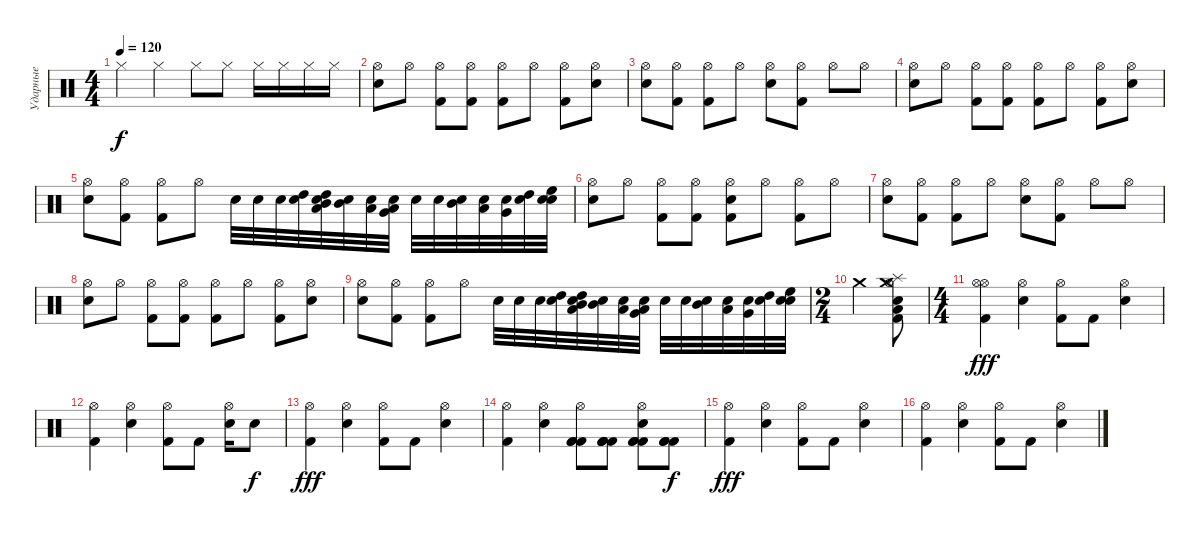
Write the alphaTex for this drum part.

\track ("Ударные" "Ударные") {instrument percussion}
\staff {score}
\articulation defaults
\ts (4 4)
\tempo 120
\clef neutral
\ks c "Hi-Hat (closed)".4{dy f} "Hi-Hat (closed)".4 "Hi-Hat (closed)".8 "Hi-Hat (closed)".8 "Hi-Hat (closed)".16 "Hi-Hat (closed)".16 "Hi-Hat (closed)".16 "Hi-Hat (closed)".16
|
("Hi-Hat (open)" "Snare (hit) 2").8 "Hi-Hat (open)".8 ("Hi-Hat (open)" "Kick (hit) 2").8 ("Hi-Hat (open)" "Kick (hit) 2").8 ("Hi-Hat (open)" "Kick (hit) 2").8 "Hi-Hat (open)".8 ("Hi-Hat (open)" "Kick (hit) 2").8 ("Hi-Hat (open)" "Snare (hit) 2").8 |
("Hi-Hat (open)" "Snare (hit) 2").8 ("Hi-Hat (open)" "Kick (hit) 2").8 ("Hi-Hat (open)" "Kick (hit) 2").8 "Hi-Hat (open)".8 ("Hi-Hat (open)" "Snare (hit) 2").8 ("Hi-Hat (open)" "Kick (hit) 2").8 "Hi-Hat (open)".8 "Hi-Hat (open)".8 |
("Hi-Hat (open)" "Snare (hit) 2").8 "Hi-Hat (open)".8 ("Hi-Hat (open)" "Kick (hit) 2").8 ("Hi-Hat (open)" "Kick (hit) 2").8 ("Hi-Hat (open)" "Kick (hit) 2").8 "Hi-Hat (open)".8 ("Hi-Hat (open)" "Kick (hit) 2").8 ("Hi-Hat (open)" "Snare (hit) 2").8 |
("Hi-Hat (open)" "Snare (hit) 2").8 ("Hi-Hat (open)" "Kick (hit) 2").8 ("Hi-Hat (open)" "Kick (hit) 2").8 "Hi-Hat (open)".8 "Snare (hit) 2".32 "Snare (hit) 2".32 "Snare (hit) 2".32 ("Snare (hit) 2" "High Tom (hit)").32 ("Snare (hit) 2" "High Tom (hit)" "Mid Tom (hit)" "Low Tom (hit)").32 ("Snare (hit) 2" "Mid Tom (hit)").32 ("Snare (hit) 2" "Low Tom (hit)").32 ("Snare (hit) 2" "Very Low Tom (hit)" "Low Floor Tom (hit)").32 "Snare (hit) 2".32 "Snare (hit) 2".32 ("Snare (hit) 2" "Mid Tom (hit)").32 ("Snare (hit) 2" "Low Tom (hit)").32 ("Snare (hit) 2" "Very Low Tom (hit)").32 ("Snare (hit) 2" "High Tom (hit)").32 ("Snare (hit) 2" "Snare (hit) 2" "High Floor Tom (hit)").32 |
("Hi-Hat (open)" "Snare (hit) 2").8 "Hi-Hat (open)".8 ("Hi-Hat (open)" "Kick (hit) 2").8 ("Hi-Hat (open)" "Kick (hit) 2").8 ("Hi-Hat (open)" "Kick (hit) 2" "Snare (hit) 2").8 "Hi-Hat (open)".8 ("Hi-Hat (open)" "Kick (hit) 2").8 "Hi-Hat (open)".8 |
("Hi-Hat (open)" "Snare (hit) 2").8 ("Hi-Hat (open)" "Kick (hit) 2").8 ("Hi-Hat (open)" "Kick (hit) 2").8 "Hi-Hat (open)".8 ("Hi-Hat (open)" "Snare (hit) 2").8 ("Hi-Hat (open)" "Kick (hit) 2").8 "Hi-Hat (open)".8 "Hi-Hat (open)".8 |
("Hi-Hat (open)" "Snare (hit) 2").8 "Hi-Hat (open)".8 ("Hi-Hat (open)" "Kick (hit) 2").8 ("Hi-Hat (open)" "Kick (hit) 2").8 ("Hi-Hat (open)" "Kick (hit) 2").8 "Hi-Hat (open)".8 ("Hi-Hat (open)" "Kick (hit) 2").8 ("Hi-Hat (open)" "Snare (hit) 2").8 |
("Hi-Hat (open)" "Snare (hit) 2").8 ("Hi-Hat (open)" "Kick (hit) 2").8 ("Hi-Hat (open)" "Kick (hit) 2").8 "Hi-Hat (open)".8 "Snare (hit) 2".32 "Snare (hit) 2".32 "Snare (hit) 2".32 ("Snare (hit) 2" "High Tom (hit)").32 ("Snare (hit) 2" "High Tom (hit)" "Mid Tom (hit)" "Low Tom (hit)").32 ("Snare (hit) 2" "Mid Tom (hit)").32 ("Snare (hit) 2" "Low Tom (hit)").32 ("Snare (hit) 2" "Very Low Tom (hit)" "Low Floor Tom (hit)").32 "Snare (hit) 2".32 "Snare (hit) 2".32 ("Snare (hit) 2" "Mid Tom (hit)").32 ("Snare (hit) 2" "Low Tom (hit)").32 ("Snare (hit) 2" "Very Low Tom (hit)").32 ("Snare (hit) 2" "High Tom (hit)").32 ("Snare (hit) 2" "Snare (hit) 2" "High Floor Tom (hit)").32 |
\ts (2 4)
"Crash medium (hit)".4 ("Crash medium (hit)" "Kick (hit) 2" "Snare (hit) 2" "Hi-Hat (open)" "Splash (hit)" "Low Tom (hit)").8 |
\ts (4 4)
("Hi-Hat (open)" "Hi-Hat (open)" "Kick (hit) 2").4{dy fff} ("Hi-Hat (open)" "Snare (hit) 2").4 ("Hi-Hat (open)" "Kick (hit) 2").8 "Kick (hit) 2".8 ("Hi-Hat (open)" "Snare (hit) 2").4 |
("Hi-Hat (open)" "Kick (hit) 2").4 ("Hi-Hat (open)" "Snare (hit) 2").4 ("Hi-Hat (open)" "Kick (hit) 2").8 "Kick (hit) 2".8 ("Hi-Hat (open)" "Snare (hit) 2").16 "Snare (hit) 2".8{dy f} |
("Hi-Hat (open)" "Kick (hit) 2").4{dy fff} ("Hi-Hat (open)" "Snare (hit) 2").4 ("Hi-Hat (open)" "Kick (hit) 2").8 "Kick (hit) 2".8 ("Hi-Hat (open)" "Snare (hit) 2").4 |
("Hi-Hat (open)" "Kick (hit) 2").4 ("Hi-Hat (open)" "Snare (hit) 2").4 ("Kick (hit) 2" "Kick (hit) 2" "Hi-Hat (open)" "Kick (hit) 2").8 ("Kick (hit) 2" "Kick (hit) 2" "Kick (hit) 2" "Kick (hit) 2").8 ("Kick (hit) 2" "Kick (hit) 2" "Kick (hit) 2" "Hi-Hat (open)" "Snare (hit) 2").8 ("Kick (hit) 2" "Kick (hit) 2" "Kick (hit) 2").8{dy f} |
("Hi-Hat (open)" "Kick (hit) 2").4{dy fff} ("Hi-Hat (open)" "Snare (hit) 2").4 ("Hi-Hat (open)" "Kick (hit) 2").8 "Kick (hit) 2".8 ("Hi-Hat (open)" "Snare (hit) 2").4 |
("Hi-Hat (open)" "Kick (hit) 2").4 ("Hi-Hat (open)" "Snare (hit) 2").4 ("Hi-Hat (open)" "Kick (hit) 2").8 "Kick (hit) 2".8 ("Hi-Hat (open)" "Snare (hit) 2").4
